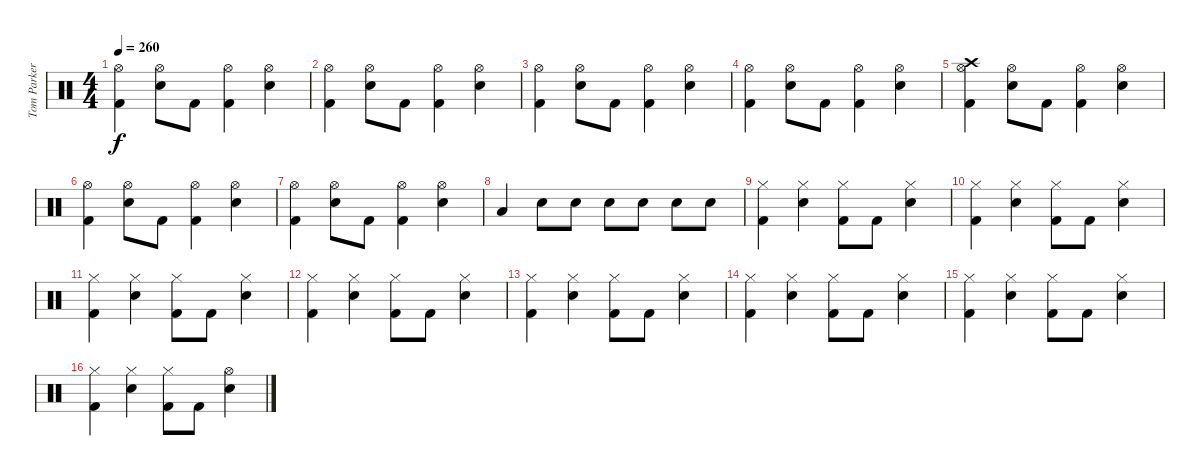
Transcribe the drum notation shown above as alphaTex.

\track ("Tom Parker" "Tom Parker") {instrument percussion}
\staff {score}
\articulation defaults
\ts (4 4)
\tempo 260
\clef neutral
\ks c
("Hi-Hat (open)" "Kick (hit) 2").4{dy f} ("Hi-Hat (open)" "Electric Snare (hit)").8 "Kick (hit) 2".8 ("Hi-Hat (open)" "Kick (hit) 2").4 ("Hi-Hat (open)" "Electric Snare (hit)").4 |
("Hi-Hat (open)" "Kick (hit) 2").4 ("Hi-Hat (open)" "Electric Snare (hit)").8 "Kick (hit) 2".8 ("Hi-Hat (open)" "Kick (hit) 2").4 ("Hi-Hat (open)" "Electric Snare (hit)").4 |
("Hi-Hat (open)" "Kick (hit) 2").4 ("Hi-Hat (open)" "Electric Snare (hit)").8 "Kick (hit) 2".8 ("Hi-Hat (open)" "Kick (hit) 2").4 ("Hi-Hat (open)" "Electric Snare (hit)").4 |
("Hi-Hat (open)" "Kick (hit) 2").4 ("Hi-Hat (open)" "Electric Snare (hit)").8 "Kick (hit) 2".8 ("Hi-Hat (open)" "Kick (hit) 2").4 ("Hi-Hat (open)" "Electric Snare (hit)").4 |
("Crash high (hit)" "Hi-Hat (open)" "Kick (hit) 2").4 ("Hi-Hat (open)" "Electric Snare (hit)").8 "Kick (hit) 2".8 ("Hi-Hat (open)" "Kick (hit) 2").4 ("Hi-Hat (open)" "Electric Snare (hit)").4 |
("Hi-Hat (open)" "Kick (hit) 2").4 ("Hi-Hat (open)" "Electric Snare (hit)").8 "Kick (hit) 2".8 ("Hi-Hat (open)" "Kick (hit) 2").4 ("Hi-Hat (open)" "Electric Snare (hit)").4 |
("Hi-Hat (open)" "Kick (hit) 2").4 ("Hi-Hat (open)" "Electric Snare (hit)").8 "Kick (hit) 2".8 ("Hi-Hat (open)" "Kick (hit) 2").4 ("Hi-Hat (open)" "Electric Snare (hit)").4 |
"Low Tom (hit)".4 "Electric Snare (hit)".8 "Electric Snare (hit)".8 "Electric Snare (hit)".8 "Electric Snare (hit)".8 "Electric Snare (hit)".8 "Electric Snare (hit)".8 |
("Hi-Hat (closed)" "Kick (hit) 2").4 ("Hi-Hat (closed)" "Electric Snare (hit)").4 ("Hi-Hat (closed)" "Kick (hit) 2").8 "Kick (hit) 2".8 ("Hi-Hat (closed)" "Electric Snare (hit)").4 |
("Hi-Hat (closed)" "Kick (hit) 2").4 ("Hi-Hat (closed)" "Electric Snare (hit)").4 ("Hi-Hat (closed)" "Kick (hit) 2").8 "Kick (hit) 2".8 ("Hi-Hat (closed)" "Electric Snare (hit)").4 |
("Hi-Hat (closed)" "Kick (hit) 2").4 ("Hi-Hat (closed)" "Electric Snare (hit)").4 ("Hi-Hat (closed)" "Kick (hit) 2").8 "Kick (hit) 2".8 ("Hi-Hat (closed)" "Electric Snare (hit)").4 |
("Hi-Hat (closed)" "Kick (hit) 2").4 ("Hi-Hat (closed)" "Electric Snare (hit)").4 ("Hi-Hat (closed)" "Kick (hit) 2").8 "Kick (hit) 2".8 ("Hi-Hat (closed)" "Electric Snare (hit)").4 |
("Hi-Hat (closed)" "Kick (hit) 2").4 ("Hi-Hat (closed)" "Electric Snare (hit)").4 ("Hi-Hat (closed)" "Kick (hit) 2").8 "Kick (hit) 2".8 ("Hi-Hat (closed)" "Electric Snare (hit)").4 |
("Hi-Hat (closed)" "Kick (hit) 2").4 ("Hi-Hat (closed)" "Electric Snare (hit)").4 ("Hi-Hat (closed)" "Kick (hit) 2").8 "Kick (hit) 2".8 ("Hi-Hat (closed)" "Electric Snare (hit)").4 |
("Hi-Hat (closed)" "Kick (hit) 2").4 ("Hi-Hat (closed)" "Electric Snare (hit)").4 ("Hi-Hat (closed)" "Kick (hit) 2").8 "Kick (hit) 2".8 ("Hi-Hat (closed)" "Electric Snare (hit)").4 |
("Hi-Hat (closed)" "Kick (hit) 2").4 ("Hi-Hat (closed)" "Electric Snare (hit)").4 ("Hi-Hat (closed)" "Kick (hit) 2").8 "Kick (hit) 2".8 ("Hi-Hat (open)" "Electric Snare (hit)").4
